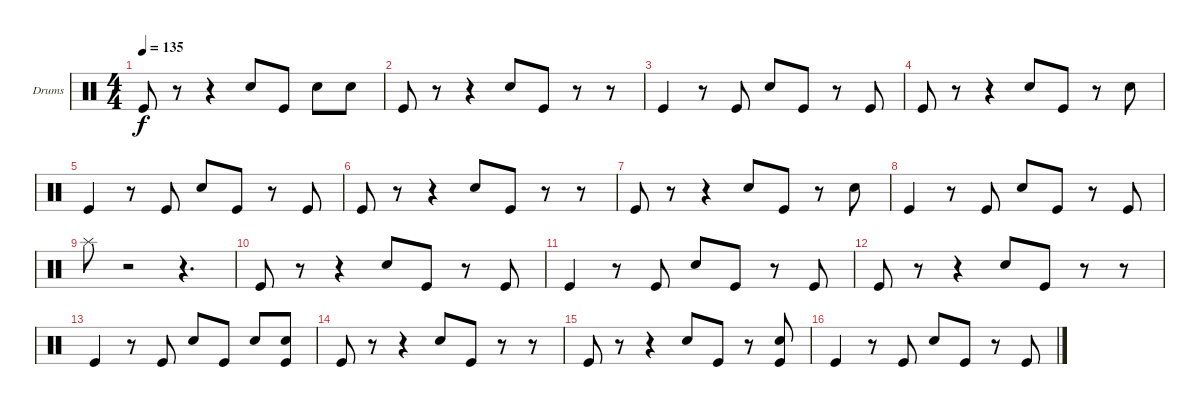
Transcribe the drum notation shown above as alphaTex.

\bracketExtendMode groupsimilarinstruments
\firstSystemTrackNameOrientation horizontal
\otherSystemsTrackNameOrientation horizontal
\track ("Drumkit" "Drums") {instrument percussion}
\staff {score}
\articulation defaults
\ts (4 4)
\tempo 135
\clef neutral
\ks c "Kick (hit)".8{dy f}
r.8 r.4 "Snare (hit) 2".8 "Kick (hit)".8 "Snare (hit) 2".8 "Snare (hit) 2".8 |
"Kick (hit)".8 r.8 r.4 "Snare (hit) 2".8 "Kick (hit)".8 r.8 r.8 |
"Kick (hit)".4 r.8 "Kick (hit)".8 "Snare (hit) 2".8 "Kick (hit)".8 r.8 "Kick (hit)".8 |
"Kick (hit)".8 r.8 r.4 "Snare (hit) 2".8 "Kick (hit)".8 r.8 "Snare (hit) 2".8 |
"Kick (hit)".4 r.8 "Kick (hit)".8 "Snare (hit) 2".8 "Kick (hit)".8 r.8 "Kick (hit)".8 |
"Kick (hit)".8 r.8 r.4 "Snare (hit) 2".8 "Kick (hit)".8 r.8 r.8 |
"Kick (hit)".8 r.8 r.4 "Snare (hit) 2".8 "Kick (hit)".8 r.8 "Snare (hit) 2".8 |
"Kick (hit)".4 r.8 "Kick (hit)".8 "Snare (hit) 2".8 "Kick (hit)".8 r.8 "Kick (hit)".8 |
"Splash (hit)".8 r.2 r.4{d} |
"Kick (hit)".8 r.8 r.4 "Snare (hit) 2".8 "Kick (hit)".8 r.8 "Kick (hit)".8 |
"Kick (hit)".4 r.8 "Kick (hit)".8 "Snare (hit) 2".8 "Kick (hit)".8 r.8 "Kick (hit)".8 |
"Kick (hit)".8 r.8 r.4 "Snare (hit) 2".8 "Kick (hit)".8 r.8 r.8 |
"Kick (hit)".4 r.8 "Kick (hit)".8 "Snare (hit) 2".8 "Kick (hit)".8 "Snare (hit) 2".8 ("Snare (hit) 2" "Kick (hit)").8 |
"Kick (hit)".8 r.8 r.4 "Snare (hit) 2".8 "Kick (hit)".8 r.8 r.8 |
"Kick (hit)".8 r.8 r.4 "Snare (hit) 2".8 "Kick (hit)".8 r.8 ("Snare (hit) 2" "Kick (hit)").8 |
"Kick (hit)".4 r.8 "Kick (hit)".8 "Snare (hit) 2".8 "Kick (hit)".8 r.8 "Kick (hit)".8
